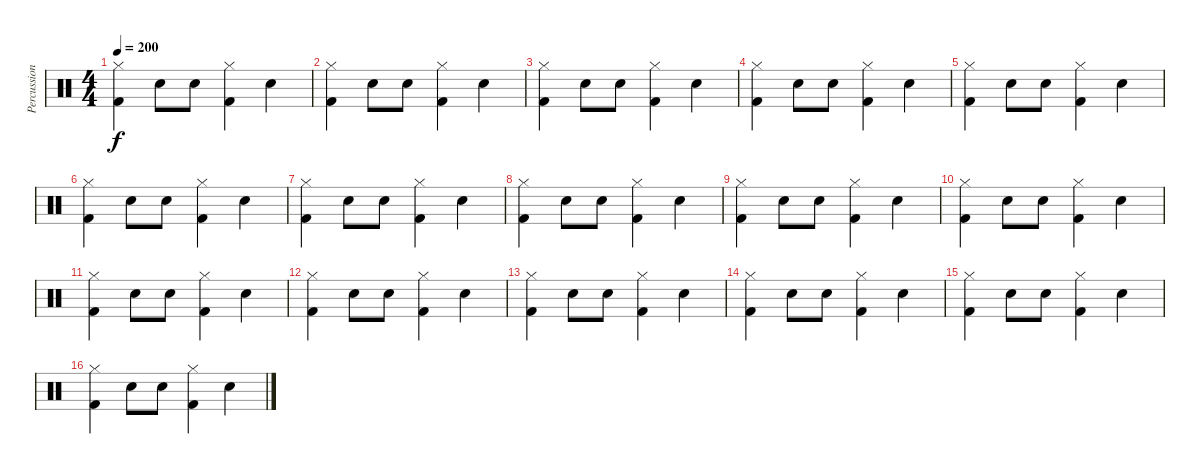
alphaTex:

\track ("Percussions" "Percussion") {instrument percussion}
\staff {score}
\articulation defaults
\ts (4 4)
\tempo 200
\clef neutral
\ks c
("Kick (hit) 2" "Hi-Hat (closed)").4{dy f} "Electric Snare (hit)".8 "Electric Snare (hit)".8 ("Kick (hit) 2" "Hi-Hat (closed)").4 "Electric Snare (hit)".4 |
("Kick (hit) 2" "Hi-Hat (closed)").4 "Electric Snare (hit)".8 "Electric Snare (hit)".8 ("Kick (hit) 2" "Hi-Hat (closed)").4 "Electric Snare (hit)".4 |
("Kick (hit) 2" "Hi-Hat (closed)").4 "Electric Snare (hit)".8 "Electric Snare (hit)".8 ("Kick (hit) 2" "Hi-Hat (closed)").4 "Electric Snare (hit)".4 |
("Kick (hit) 2" "Hi-Hat (closed)").4 "Electric Snare (hit)".8 "Electric Snare (hit)".8 ("Kick (hit) 2" "Hi-Hat (closed)").4 "Electric Snare (hit)".4 |
("Kick (hit) 2" "Hi-Hat (closed)").4 "Electric Snare (hit)".8 "Electric Snare (hit)".8 ("Kick (hit) 2" "Hi-Hat (closed)").4 "Electric Snare (hit)".4 |
("Kick (hit) 2" "Hi-Hat (closed)").4 "Electric Snare (hit)".8 "Electric Snare (hit)".8 ("Kick (hit) 2" "Hi-Hat (closed)").4 "Electric Snare (hit)".4 |
("Kick (hit) 2" "Hi-Hat (closed)").4 "Electric Snare (hit)".8 "Electric Snare (hit)".8 ("Kick (hit) 2" "Hi-Hat (closed)").4 "Electric Snare (hit)".4 |
("Kick (hit) 2" "Hi-Hat (closed)").4 "Electric Snare (hit)".8 "Electric Snare (hit)".8 ("Kick (hit) 2" "Hi-Hat (closed)").4 "Electric Snare (hit)".4 |
("Kick (hit) 2" "Hi-Hat (closed)").4 "Electric Snare (hit)".8 "Electric Snare (hit)".8 ("Kick (hit) 2" "Hi-Hat (closed)").4 "Electric Snare (hit)".4 |
("Kick (hit) 2" "Hi-Hat (closed)").4 "Electric Snare (hit)".8 "Electric Snare (hit)".8 ("Kick (hit) 2" "Hi-Hat (closed)").4 "Electric Snare (hit)".4 |
("Kick (hit) 2" "Hi-Hat (closed)").4 "Electric Snare (hit)".8 "Electric Snare (hit)".8 ("Kick (hit) 2" "Hi-Hat (closed)").4 "Electric Snare (hit)".4 |
("Kick (hit) 2" "Hi-Hat (closed)").4 "Electric Snare (hit)".8 "Electric Snare (hit)".8 ("Kick (hit) 2" "Hi-Hat (closed)").4 "Electric Snare (hit)".4 |
("Kick (hit) 2" "Hi-Hat (closed)").4 "Electric Snare (hit)".8 "Electric Snare (hit)".8 ("Kick (hit) 2" "Hi-Hat (closed)").4 "Electric Snare (hit)".4 |
("Kick (hit) 2" "Hi-Hat (closed)").4 "Electric Snare (hit)".8 "Electric Snare (hit)".8 ("Kick (hit) 2" "Hi-Hat (closed)").4 "Electric Snare (hit)".4 |
("Kick (hit) 2" "Hi-Hat (closed)").4 "Electric Snare (hit)".8 "Electric Snare (hit)".8 ("Kick (hit) 2" "Hi-Hat (closed)").4 "Electric Snare (hit)".4 |
("Kick (hit) 2" "Hi-Hat (closed)").4 "Electric Snare (hit)".8 "Electric Snare (hit)".8 ("Kick (hit) 2" "Hi-Hat (closed)").4 "Electric Snare (hit)".4
